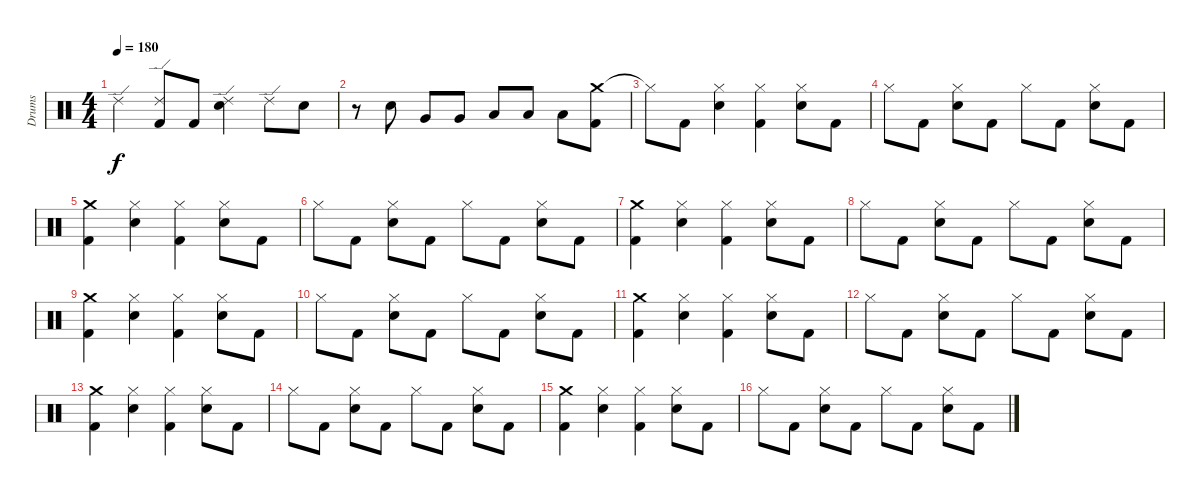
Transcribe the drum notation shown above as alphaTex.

\track ("Drums" "Drums") {instrument percussion}
\staff {score}
\articulation defaults
\ts (4 4)
\tempo 180
\clef neutral
\ks c "Ride (edge) 2".4{dy f}
("Ride (edge) 2" "Kick (hit) 2").8 "Kick (hit) 2".8 ("Ride (edge) 2" "Electric Snare (hit)").4 "Ride (edge) 2".8 "Electric Snare (hit)".8 |
r.8 "Electric Snare (hit)".8 "Very Low Tom (hit)".8 "Very Low Tom (hit)".8 "Low Floor Tom (hit)".8 "Low Floor Tom (hit)".8 "Low Floor Tom (hit)".8 ("Crash medium (hit)" "Kick (hit) 2").8 |
"Hi-Hat (closed)"{t}.8 "Kick (hit) 2".8 ("Hi-Hat (closed)" "Electric Snare (hit)").4 ("Hi-Hat (closed)" "Kick (hit) 2").4 ("Hi-Hat (closed)" "Electric Snare (hit)").8 "Kick (hit) 2".8 |
"Hi-Hat (closed)".8 "Kick (hit) 2".8 ("Hi-Hat (closed)" "Electric Snare (hit)").8 "Kick (hit) 2".8 "Hi-Hat (closed)".8 "Kick (hit) 2".8 ("Hi-Hat (closed)" "Electric Snare (hit)").8 "Kick (hit) 2".8 |
("Crash medium (hit)" "Kick (hit) 2").4 ("Hi-Hat (closed)" "Electric Snare (hit)").4 ("Hi-Hat (closed)" "Kick (hit) 2").4 ("Hi-Hat (closed)" "Electric Snare (hit)").8 "Kick (hit) 2".8 |
"Hi-Hat (closed)".8 "Kick (hit) 2".8 ("Hi-Hat (closed)" "Electric Snare (hit)").8 "Kick (hit) 2".8 "Hi-Hat (closed)".8 "Kick (hit) 2".8 ("Hi-Hat (closed)" "Electric Snare (hit)").8 "Kick (hit) 2".8 |
("Crash medium (hit)" "Kick (hit) 2").4 ("Hi-Hat (closed)" "Electric Snare (hit)").4 ("Hi-Hat (closed)" "Kick (hit) 2").4 ("Hi-Hat (closed)" "Electric Snare (hit)").8 "Kick (hit) 2".8 |
"Hi-Hat (closed)".8 "Kick (hit) 2".8 ("Hi-Hat (closed)" "Electric Snare (hit)").8 "Kick (hit) 2".8 "Hi-Hat (closed)".8 "Kick (hit) 2".8 ("Hi-Hat (closed)" "Electric Snare (hit)").8 "Kick (hit) 2".8 |
("Crash medium (hit)" "Kick (hit) 2").4 ("Hi-Hat (closed)" "Electric Snare (hit)").4 ("Hi-Hat (closed)" "Kick (hit) 2").4 ("Hi-Hat (closed)" "Electric Snare (hit)").8 "Kick (hit) 2".8 |
"Hi-Hat (closed)".8 "Kick (hit) 2".8 ("Hi-Hat (closed)" "Electric Snare (hit)").8 "Kick (hit) 2".8 "Hi-Hat (closed)".8 "Kick (hit) 2".8 ("Hi-Hat (closed)" "Electric Snare (hit)").8 "Kick (hit) 2".8 |
("Crash medium (hit)" "Kick (hit) 2").4 ("Hi-Hat (closed)" "Electric Snare (hit)").4 ("Hi-Hat (closed)" "Kick (hit) 2").4 ("Hi-Hat (closed)" "Electric Snare (hit)").8 "Kick (hit) 2".8 |
"Hi-Hat (closed)".8 "Kick (hit) 2".8 ("Hi-Hat (closed)" "Electric Snare (hit)").8 "Kick (hit) 2".8 "Hi-Hat (closed)".8 "Kick (hit) 2".8 ("Hi-Hat (closed)" "Electric Snare (hit)").8 "Kick (hit) 2".8 |
("Crash medium (hit)" "Kick (hit) 2").4 ("Hi-Hat (closed)" "Electric Snare (hit)").4 ("Hi-Hat (closed)" "Kick (hit) 2").4 ("Hi-Hat (closed)" "Electric Snare (hit)").8 "Kick (hit) 2".8 |
"Hi-Hat (closed)".8 "Kick (hit) 2".8 ("Hi-Hat (closed)" "Electric Snare (hit)").8 "Kick (hit) 2".8 "Hi-Hat (closed)".8 "Kick (hit) 2".8 ("Hi-Hat (closed)" "Electric Snare (hit)").8 "Kick (hit) 2".8 |
("Crash medium (hit)" "Kick (hit) 2").4 ("Hi-Hat (closed)" "Electric Snare (hit)").4 ("Hi-Hat (closed)" "Kick (hit) 2").4 ("Hi-Hat (closed)" "Electric Snare (hit)").8 "Kick (hit) 2".8 |
"Hi-Hat (closed)".8 "Kick (hit) 2".8 ("Hi-Hat (closed)" "Electric Snare (hit)").8 "Kick (hit) 2".8 "Hi-Hat (closed)".8 "Kick (hit) 2".8 ("Hi-Hat (closed)" "Electric Snare (hit)").8 "Kick (hit) 2".8
